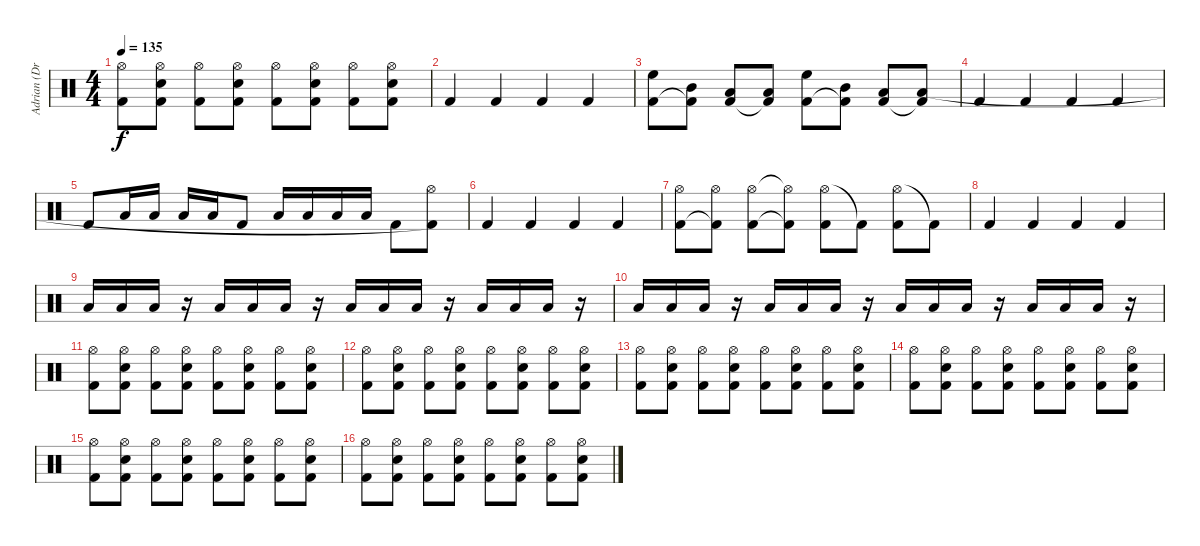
\track ("Adrian (Drums)" "Adrian (Dr") {instrument percussion}
\staff {score}
\articulation defaults
\ts (4 4)
\tempo 135
\clef neutral
\ks c
("Kick (hit) 2" "Hi-Hat (open)").8{dy f} ("Kick (hit) 2" "Hi-Hat (open)" "Snare (hit) 2").8 ("Kick (hit) 2" "Hi-Hat (open)").8 ("Kick (hit) 2" "Hi-Hat (open)" "Snare (hit) 2").8 ("Kick (hit) 2" "Hi-Hat (open)").8 ("Kick (hit) 2" "Hi-Hat (open)" "Snare (hit) 2").8 ("Kick (hit) 2" "Hi-Hat (open)").8 ("Kick (hit) 2" "Hi-Hat (open)" "Snare (hit) 2").8 |
"Kick (hit) 2".4 "Kick (hit) 2".4 "Kick (hit) 2".4 "Kick (hit) 2".4 |
("High Floor Tom (hit)" "Kick (hit) 2").8 ("Mid Tom (hit)" "Kick (hit) 2"{t}).8 ("Kick (hit) 2" "Low Tom (hit)").8 ("Kick (hit) 2"{t} "Low Tom (hit)").8 ("High Floor Tom (hit)" "Kick (hit) 2").8 ("Mid Tom (hit)" "Kick (hit) 2"{t}).8 ("Kick (hit) 2" "Low Tom (hit)").8 ("Kick (hit) 2"{t} "Low Tom (hit)").8 |
"Kick (hit) 2".4 "Kick (hit) 2".4 "Kick (hit) 2".4 "Kick (hit) 2".4 |
"Kick (hit) 2".8 "Low Tom (hit)".16 "Low Tom (hit)".16 "Low Tom (hit)".16 "Low Tom (hit)".16 "Kick (hit) 2".8 "Low Tom (hit)".16 "Low Tom (hit)".16 "Low Tom (hit)".16 "Low Tom (hit)".16 "Kick (hit) 2".8 ("Hi-Hat (open)" "Kick (hit) 2"{t}).8 |
"Kick (hit) 2".4 "Kick (hit) 2".4 "Kick (hit) 2".4 "Kick (hit) 2".4 |
("Hi-Hat (open)" "Kick (hit) 2").8 ("Hi-Hat (open)" "Kick (hit) 2"{t}).8 ("Hi-Hat (open)" "Kick (hit) 2").8 ("Hi-Hat (open)"{t} "Kick (hit) 2"{t}).8 ("Hi-Hat (open)" "Kick (hit) 2").8 "Kick (hit) 2"{t}.8 ("Hi-Hat (open)" "Kick (hit) 2").8 "Kick (hit) 2"{t}.8 |
"Kick (hit) 2".4 "Kick (hit) 2".4 "Kick (hit) 2".4 "Kick (hit) 2".4 |
"Low Tom (hit)".16 "Low Tom (hit)".16 "Low Tom (hit)".16 r.16 "Low Tom (hit)".16 "Low Tom (hit)".16 "Low Tom (hit)".16 r.16 "Low Tom (hit)".16 "Low Tom (hit)".16 "Low Tom (hit)".16 r.16 "Low Tom (hit)".16 "Low Tom (hit)".16 "Low Tom (hit)".16 r.16 |
"Low Tom (hit)".16 "Low Tom (hit)".16 "Low Tom (hit)".16 r.16 "Low Tom (hit)".16 "Low Tom (hit)".16 "Low Tom (hit)".16 r.16 "Low Tom (hit)".16 "Low Tom (hit)".16 "Low Tom (hit)".16 r.16 "Low Tom (hit)".16 "Low Tom (hit)".16 "Low Tom (hit)".16 r.16 |
("Kick (hit) 2" "Hi-Hat (open)").8 ("Kick (hit) 2" "Hi-Hat (open)" "Snare (hit) 2").8 ("Kick (hit) 2" "Hi-Hat (open)").8 ("Kick (hit) 2" "Hi-Hat (open)" "Snare (hit) 2").8 ("Kick (hit) 2" "Hi-Hat (open)").8 ("Kick (hit) 2" "Hi-Hat (open)" "Snare (hit) 2").8 ("Kick (hit) 2" "Hi-Hat (open)").8 ("Kick (hit) 2" "Hi-Hat (open)" "Snare (hit) 2").8 |
("Kick (hit) 2" "Hi-Hat (open)").8 ("Kick (hit) 2" "Hi-Hat (open)" "Snare (hit) 2").8 ("Kick (hit) 2" "Hi-Hat (open)").8 ("Kick (hit) 2" "Hi-Hat (open)" "Snare (hit) 2").8 ("Kick (hit) 2" "Hi-Hat (open)").8 ("Kick (hit) 2" "Hi-Hat (open)" "Snare (hit) 2").8 ("Kick (hit) 2" "Hi-Hat (open)").8 ("Kick (hit) 2" "Hi-Hat (open)" "Snare (hit) 2").8 |
("Kick (hit) 2" "Hi-Hat (open)").8 ("Kick (hit) 2" "Hi-Hat (open)" "Snare (hit) 2").8 ("Kick (hit) 2" "Hi-Hat (open)").8 ("Kick (hit) 2" "Hi-Hat (open)" "Snare (hit) 2").8 ("Kick (hit) 2" "Hi-Hat (open)").8 ("Kick (hit) 2" "Hi-Hat (open)" "Snare (hit) 2").8 ("Kick (hit) 2" "Hi-Hat (open)").8 ("Kick (hit) 2" "Hi-Hat (open)" "Snare (hit) 2").8 |
("Kick (hit) 2" "Hi-Hat (open)").8 ("Kick (hit) 2" "Hi-Hat (open)" "Snare (hit) 2").8 ("Kick (hit) 2" "Hi-Hat (open)").8 ("Kick (hit) 2" "Hi-Hat (open)" "Snare (hit) 2").8 ("Kick (hit) 2" "Hi-Hat (open)").8 ("Kick (hit) 2" "Hi-Hat (open)" "Snare (hit) 2").8 ("Kick (hit) 2" "Hi-Hat (open)").8 ("Kick (hit) 2" "Hi-Hat (open)" "Snare (hit) 2").8 |
("Kick (hit) 2" "Hi-Hat (open)").8 ("Kick (hit) 2" "Hi-Hat (open)" "Snare (hit) 2").8 ("Kick (hit) 2" "Hi-Hat (open)").8 ("Kick (hit) 2" "Hi-Hat (open)" "Snare (hit) 2").8 ("Kick (hit) 2" "Hi-Hat (open)").8 ("Kick (hit) 2" "Hi-Hat (open)" "Snare (hit) 2").8 ("Kick (hit) 2" "Hi-Hat (open)").8 ("Kick (hit) 2" "Hi-Hat (open)" "Snare (hit) 2").8 |
("Kick (hit) 2" "Hi-Hat (open)").8 ("Kick (hit) 2" "Hi-Hat (open)" "Snare (hit) 2").8 ("Kick (hit) 2" "Hi-Hat (open)").8 ("Kick (hit) 2" "Hi-Hat (open)" "Snare (hit) 2").8 ("Kick (hit) 2" "Hi-Hat (open)").8 ("Kick (hit) 2" "Hi-Hat (open)" "Snare (hit) 2").8 ("Kick (hit) 2" "Hi-Hat (open)").8 ("Kick (hit) 2" "Hi-Hat (open)" "Snare (hit) 2").8
